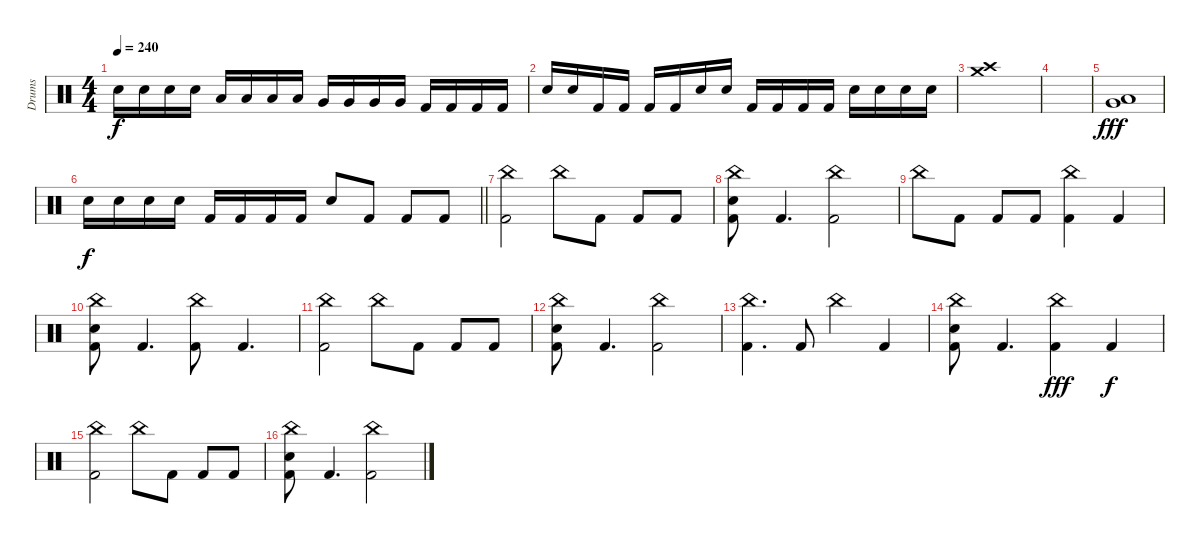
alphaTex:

\track ("Drums" "Drums") {instrument percussion}
\staff {score}
\articulation defaults
\ts (4 4)
\tempo 240
\clef neutral
\ks c "Snare (hit) 2".16{dy f} "Snare (hit) 2".16 "Snare (hit) 2".16 "Snare (hit) 2".16 "Low Tom (hit)".16 "Low Tom (hit)".16 "Low Tom (hit)".16 "Low Tom (hit)".16 "Very Low Tom (hit)".16 "Very Low Tom (hit)".16 "Very Low Tom (hit)".16 "Very Low Tom (hit)".16 "Kick (hit) 2".16 "Kick (hit) 2".16 "Kick (hit) 2".16 "Kick (hit) 2".16
|
"Snare (hit) 2".16 "Snare (hit) 2".16 "Kick (hit) 2".16 "Kick (hit) 2".16 "Kick (hit) 2".16 "Kick (hit) 2".16 "Snare (hit) 2".16 "Snare (hit) 2".16 "Kick (hit) 2".16 "Kick (hit) 2".16 "Kick (hit) 2".16 "Kick (hit) 2".16 "Snare (hit) 2".16 "Snare (hit) 2".16 "Snare (hit) 2".16 "Snare (hit) 2".16 |
("Crash medium (hit)" "Crash high (hit)").1 |
|
("Low Floor Tom (hit)" "Very Low Tom (hit)").1{dy fff} |
\barLineRight lightlight "Snare (hit) 2".16{dy f} "Snare (hit) 2".16 "Snare (hit) 2".16 "Snare (hit) 2".16 "Kick (hit) 2".16 "Kick (hit) 2".16 "Kick (hit) 2".16 "Kick (hit) 2".16 "Snare (hit) 2".8 "Kick (hit) 2".8 "Kick (hit) 2".8 "Kick (hit) 2".8
|
\section ("" "")
("China (hit)" "Kick (hit) 2").2 "China (hit)".8 "Kick (hit) 2".8 "Kick (hit) 2".8 "Kick (hit) 2".8 |
("Snare (hit) 2" "China (hit)" "Kick (hit) 2").8 "Kick (hit) 2".4{d} ("China (hit)" "Kick (hit) 2").2 |
"China (hit)".8 "Kick (hit) 2".8 "Kick (hit) 2".8 "Kick (hit) 2".8 ("China (hit)" "Kick (hit) 2").4 "Kick (hit) 2".4 |
("Snare (hit) 2" "China (hit)" "Kick (hit) 2").8 "Kick (hit) 2".4{d} ("China (hit)" "Kick (hit) 2").8 "Kick (hit) 2".4{d} |
("China (hit)" "Kick (hit) 2").2 "China (hit)".8 "Kick (hit) 2".8 "Kick (hit) 2".8 "Kick (hit) 2".8 |
("Snare (hit) 2" "China (hit)" "Kick (hit) 2").8 "Kick (hit) 2".4{d} ("China (hit)" "Kick (hit) 2").2 |
("China (hit)" "Kick (hit) 2").4{d} "Kick (hit) 2".8 "China (hit)".4 "Kick (hit) 2".4 |
("Snare (hit) 2" "China (hit)" "Kick (hit) 2").8 "Kick (hit) 2".4{d} ("China (hit)" "Kick (hit) 2").4{dy fff} "Kick (hit) 2".4{dy f} |
("China (hit)" "Kick (hit) 2").2 "China (hit)".8 "Kick (hit) 2".8 "Kick (hit) 2".8 "Kick (hit) 2".8 |
("Snare (hit) 2" "China (hit)" "Kick (hit) 2").8 "Kick (hit) 2".4{d} ("China (hit)" "Kick (hit) 2").2
